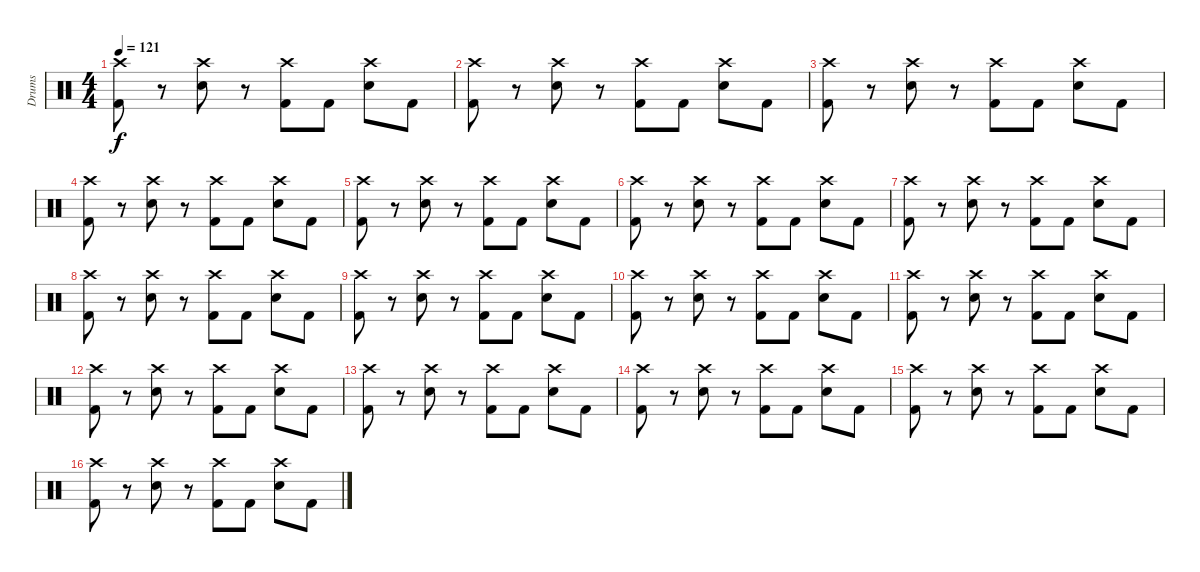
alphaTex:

\track ("Drums" "Drums") {instrument percussion}
\staff {score}
\articulation defaults
\ts (4 4)
\tempo 121
\clef neutral
\ks c
("Crash high (hit)" "Kick (hit) 2").8{dy f} r.8 ("Crash high (hit)" "Electric Snare (hit)").8 r.8 ("Crash high (hit)" "Kick (hit) 2").8 "Kick (hit) 2".8 ("Crash high (hit)" "Electric Snare (hit)").8 "Kick (hit) 2".8 |
("Crash high (hit)" "Kick (hit) 2").8 r.8 ("Crash high (hit)" "Electric Snare (hit)").8 r.8 ("Crash high (hit)" "Kick (hit) 2").8 "Kick (hit) 2".8 ("Crash high (hit)" "Electric Snare (hit)").8 "Kick (hit) 2".8 |
("Crash high (hit)" "Kick (hit) 2").8 r.8 ("Crash high (hit)" "Electric Snare (hit)").8 r.8 ("Crash high (hit)" "Kick (hit) 2").8 "Kick (hit) 2".8 ("Crash high (hit)" "Electric Snare (hit)").8 "Kick (hit) 2".8 |
("Crash high (hit)" "Kick (hit) 2").8 r.8 ("Crash high (hit)" "Electric Snare (hit)").8 r.8 ("Crash high (hit)" "Kick (hit) 2").8 "Kick (hit) 2".8 ("Crash high (hit)" "Electric Snare (hit)").8 "Kick (hit) 2".8 |
("Crash high (hit)" "Kick (hit) 2").8 r.8 ("Crash high (hit)" "Electric Snare (hit)").8 r.8 ("Crash high (hit)" "Kick (hit) 2").8 "Kick (hit) 2".8 ("Crash high (hit)" "Electric Snare (hit)").8 "Kick (hit) 2".8 |
("Crash high (hit)" "Kick (hit) 2").8 r.8 ("Crash high (hit)" "Electric Snare (hit)").8 r.8 ("Crash high (hit)" "Kick (hit) 2").8 "Kick (hit) 2".8 ("Crash high (hit)" "Electric Snare (hit)").8 "Kick (hit) 2".8 |
("Crash high (hit)" "Kick (hit) 2").8 r.8 ("Crash high (hit)" "Electric Snare (hit)").8 r.8 ("Crash high (hit)" "Kick (hit) 2").8 "Kick (hit) 2".8 ("Crash high (hit)" "Electric Snare (hit)").8 "Kick (hit) 2".8 |
("Crash high (hit)" "Kick (hit) 2").8 r.8 ("Crash high (hit)" "Electric Snare (hit)").8 r.8 ("Crash high (hit)" "Kick (hit) 2").8 "Kick (hit) 2".8 ("Crash high (hit)" "Electric Snare (hit)").8 "Kick (hit) 2".8 |
("Crash high (hit)" "Kick (hit) 2").8 r.8 ("Crash high (hit)" "Electric Snare (hit)").8 r.8 ("Crash high (hit)" "Kick (hit) 2").8 "Kick (hit) 2".8 ("Crash high (hit)" "Electric Snare (hit)").8 "Kick (hit) 2".8 |
("Crash high (hit)" "Kick (hit) 2").8 r.8 ("Crash high (hit)" "Electric Snare (hit)").8 r.8 ("Crash high (hit)" "Kick (hit) 2").8 "Kick (hit) 2".8 ("Crash high (hit)" "Electric Snare (hit)").8 "Kick (hit) 2".8 |
("Crash high (hit)" "Kick (hit) 2").8 r.8 ("Crash high (hit)" "Electric Snare (hit)").8 r.8 ("Crash high (hit)" "Kick (hit) 2").8 "Kick (hit) 2".8 ("Crash high (hit)" "Electric Snare (hit)").8 "Kick (hit) 2".8 |
("Crash high (hit)" "Kick (hit) 2").8 r.8 ("Crash high (hit)" "Electric Snare (hit)").8 r.8 ("Crash high (hit)" "Kick (hit) 2").8 "Kick (hit) 2".8 ("Crash high (hit)" "Electric Snare (hit)").8 "Kick (hit) 2".8 |
("Crash high (hit)" "Kick (hit) 2").8 r.8 ("Crash high (hit)" "Electric Snare (hit)").8 r.8 ("Crash high (hit)" "Kick (hit) 2").8 "Kick (hit) 2".8 ("Crash high (hit)" "Electric Snare (hit)").8 "Kick (hit) 2".8 |
("Crash high (hit)" "Kick (hit) 2").8 r.8 ("Crash high (hit)" "Electric Snare (hit)").8 r.8 ("Crash high (hit)" "Kick (hit) 2").8 "Kick (hit) 2".8 ("Crash high (hit)" "Electric Snare (hit)").8 "Kick (hit) 2".8 |
("Crash high (hit)" "Kick (hit) 2").8 r.8 ("Crash high (hit)" "Electric Snare (hit)").8 r.8 ("Crash high (hit)" "Kick (hit) 2").8 "Kick (hit) 2".8 ("Crash high (hit)" "Electric Snare (hit)").8 "Kick (hit) 2".8 |
("Crash high (hit)" "Kick (hit) 2").8 r.8 ("Crash high (hit)" "Electric Snare (hit)").8 r.8 ("Crash high (hit)" "Kick (hit) 2").8 "Kick (hit) 2".8 ("Crash high (hit)" "Electric Snare (hit)").8 "Kick (hit) 2".8
